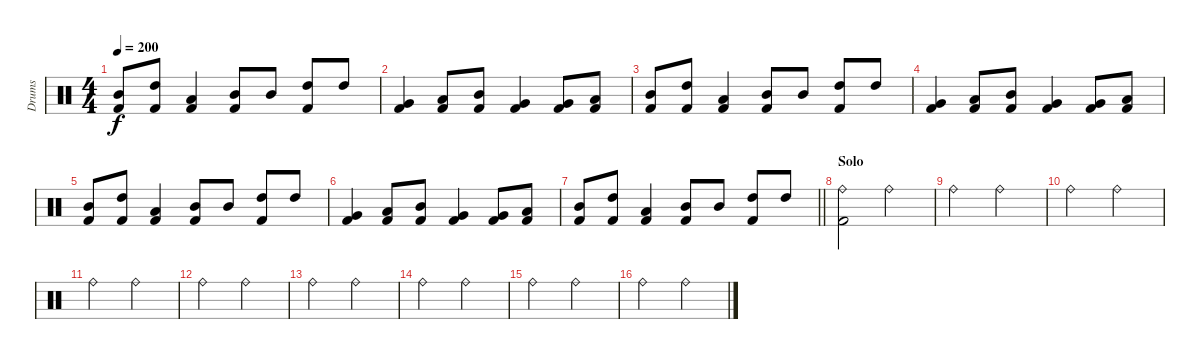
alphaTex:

\track ("Drums" "Drums") {instrument percussion}
\staff {score}
\articulation defaults
\ts (4 4)
\tempo 200
\clef neutral
\ks c
("Mid Tom (hit)" "Kick (hit) 2").8{dy f} ("High Tom (hit)" "Kick (hit) 2").8 ("Low Tom (hit)" "Kick (hit) 2").4 ("Mid Tom (hit)" "Kick (hit) 2").8 "Mid Tom (hit)".8 ("High Tom (hit)" "Kick (hit) 2").8 "High Tom (hit)".8 |
("Very Low Tom (hit)" "Kick (hit) 2").4 ("Low Tom (hit)" "Kick (hit) 2").8 ("Mid Tom (hit)" "Kick (hit) 2").8 ("Very Low Tom (hit)" "Kick (hit) 2").4 ("Very Low Tom (hit)" "Kick (hit) 2").8 ("Low Tom (hit)" "Kick (hit) 2").8 |
("Mid Tom (hit)" "Kick (hit) 2").8 ("High Tom (hit)" "Kick (hit) 2").8 ("Low Tom (hit)" "Kick (hit) 2").4 ("Mid Tom (hit)" "Kick (hit) 2").8 "Mid Tom (hit)".8 ("High Tom (hit)" "Kick (hit) 2").8 "High Tom (hit)".8 |
("Very Low Tom (hit)" "Kick (hit) 2").4 ("Low Tom (hit)" "Kick (hit) 2").8 ("Mid Tom (hit)" "Kick (hit) 2").8 ("Very Low Tom (hit)" "Kick (hit) 2").4 ("Very Low Tom (hit)" "Kick (hit) 2").8 ("Low Tom (hit)" "Kick (hit) 2").8 |
("Mid Tom (hit)" "Kick (hit) 2").8 ("High Tom (hit)" "Kick (hit) 2").8 ("Low Tom (hit)" "Kick (hit) 2").4 ("Mid Tom (hit)" "Kick (hit) 2").8 "Mid Tom (hit)".8 ("High Tom (hit)" "Kick (hit) 2").8 "High Tom (hit)".8 |
("Very Low Tom (hit)" "Kick (hit) 2").4 ("Low Tom (hit)" "Kick (hit) 2").8 ("Mid Tom (hit)" "Kick (hit) 2").8 ("Very Low Tom (hit)" "Kick (hit) 2").4 ("Very Low Tom (hit)" "Kick (hit) 2").8 ("Low Tom (hit)" "Kick (hit) 2").8 |
\barLineRight lightlight
("Mid Tom (hit)" "Kick (hit) 2").8 ("High Tom (hit)" "Kick (hit) 2").8 ("Low Tom (hit)" "Kick (hit) 2").4 ("Mid Tom (hit)" "Kick (hit) 2").8 "Mid Tom (hit)".8 ("High Tom (hit)" "Kick (hit) 2").8 "High Tom (hit)".8 |
\section ("" "Solo")
("Ride (bell)" "Kick (hit) 2").2 "Ride (bell)".2 |
"Ride (bell)".2 "Ride (bell)".2 |
"Ride (bell)".2 "Ride (bell)".2 |
"Ride (bell)".2 "Ride (bell)".2 |
"Ride (bell)".2 "Ride (bell)".2 |
"Ride (bell)".2 "Ride (bell)".2 |
"Ride (bell)".2 "Ride (bell)".2 |
"Ride (bell)".2 "Ride (bell)".2 |
"Ride (bell)".2 "Ride (bell)".2
